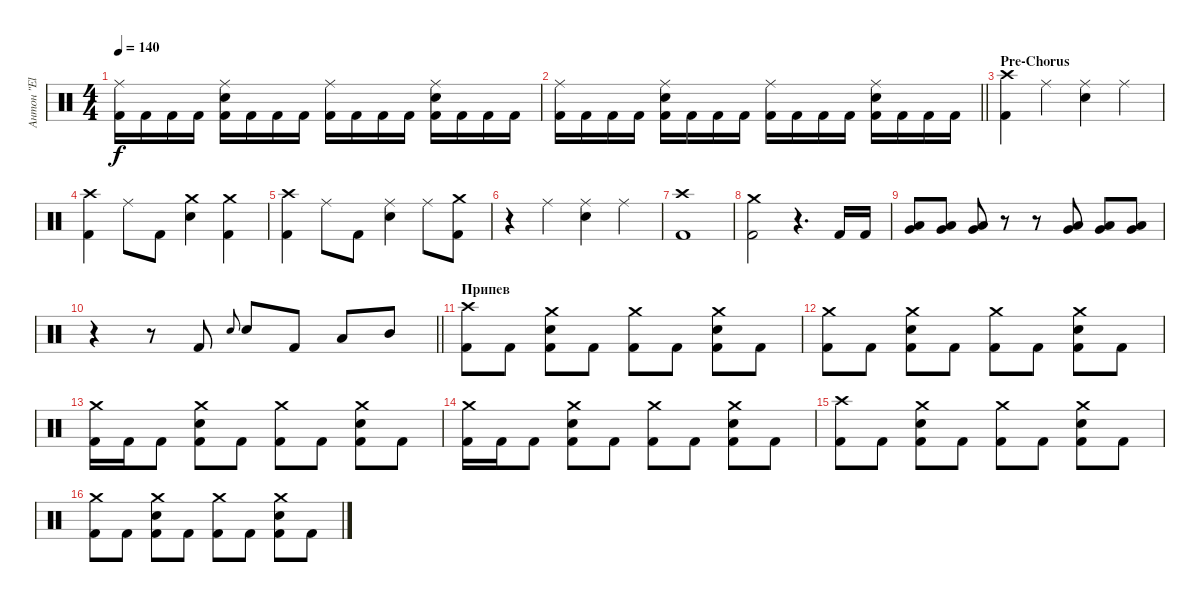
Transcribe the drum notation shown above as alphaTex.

\track ("Антон \"El Bastardo\" Смольянин" "Антон \"El ") {instrument percussion}
\staff {score}
\articulation defaults
\ts (4 4)
\tempo 140
\clef neutral
\ks c
("Ride (middle)" "Kick (hit) 2").16{dy f} "Kick (hit) 2".16 "Kick (hit) 2".16 "Kick (hit) 2".16 ("Ride (middle)" "Electric Snare (hit)" "Kick (hit) 2").16 "Kick (hit) 2".16 "Kick (hit) 2".16 "Kick (hit) 2".16 ("Ride (middle)" "Kick (hit) 2").16 "Kick (hit) 2".16 "Kick (hit) 2".16 "Kick (hit) 2".16 ("Ride (middle)" "Electric Snare (hit)" "Kick (hit) 2").16 "Kick (hit) 2".16 "Kick (hit) 2".16 "Kick (hit) 2".16 |
\barLineRight lightlight
("Ride (middle)" "Kick (hit) 2").16 "Kick (hit) 2".16 "Kick (hit) 2".16 "Kick (hit) 2".16 ("Ride (middle)" "Electric Snare (hit)" "Kick (hit) 2").16 "Kick (hit) 2".16 "Kick (hit) 2".16 "Kick (hit) 2".16 ("Ride (middle)" "Kick (hit) 2").16 "Kick (hit) 2".16 "Kick (hit) 2".16 "Kick (hit) 2".16 ("Ride (middle)" "Electric Snare (hit)" "Kick (hit) 2").16 "Kick (hit) 2".16 "Kick (hit) 2".16 "Kick (hit) 2".16 |
\section ("" "Pre-Chorus")
("Crash high (hit)" "Kick (hit) 2").4 "Ride (middle)".4 ("Ride (middle)" "Electric Snare (hit)").4 "Ride (middle)".4 |
("Crash high (hit)" "Kick (hit) 2").4 "Ride (middle)".8 "Kick (hit) 2".8 ("Crash medium (hit)" "Electric Snare (hit)").4 ("Crash medium (hit)" "Kick (hit) 2").4 |
("Crash high (hit)" "Kick (hit) 2").4 "Ride (middle)".8 "Kick (hit) 2".8 ("Ride (middle)" "Electric Snare (hit)").4 "Ride (middle)".8 ("Crash medium (hit)" "Kick (hit) 2").8 |
r.4 "Ride (middle)".4 ("Ride (middle)" "Electric Snare (hit)").4 "Ride (middle)".4 |
("Crash high (hit)" "Kick (hit) 2").1 |
("Crash medium (hit)" "Kick (hit) 2").2 r.4{d} "Kick (hit) 2".16 "Kick (hit) 2".16 |
("Low Tom (hit)" "Very Low Tom (hit)").8 ("Low Tom (hit)" "Very Low Tom (hit)").8 ("Low Tom (hit)" "Very Low Tom (hit)").8 r.8 r.8 ("Low Tom (hit)" "Very Low Tom (hit)").8 ("Low Tom (hit)" "Very Low Tom (hit)").8 ("Low Tom (hit)" "Very Low Tom (hit)").8 |
\barLineRight lightlight
r.4 r.8 "Kick (hit) 2".8 "Electric Snare (hit)".8{gr onbeat} "Electric Snare (hit)".8 "Kick (hit) 2".8 "Low Tom (hit)".8 "Mid Tom (hit)".8 |
\section ("" "Припев")
("Crash high (hit)" "Kick (hit) 2").8 "Kick (hit) 2".8 ("Crash medium (hit)" "Electric Snare (hit)" "Kick (hit) 2").8 "Kick (hit) 2".8 ("Crash medium (hit)" "Kick (hit) 2").8 "Kick (hit) 2".8 ("Crash medium (hit)" "Electric Snare (hit)" "Kick (hit) 2").8 "Kick (hit) 2".8 |
("Crash medium (hit)" "Kick (hit) 2").8 "Kick (hit) 2".8 ("Crash medium (hit)" "Electric Snare (hit)" "Kick (hit) 2").8 "Kick (hit) 2".8 ("Crash medium (hit)" "Kick (hit) 2").8 "Kick (hit) 2".8 ("Crash medium (hit)" "Electric Snare (hit)" "Kick (hit) 2").8 "Kick (hit) 2".8 |
("Crash medium (hit)" "Kick (hit) 2").16 "Kick (hit) 2".16 "Kick (hit) 2".8 ("Crash medium (hit)" "Electric Snare (hit)" "Kick (hit) 2").8 "Kick (hit) 2".8 ("Crash medium (hit)" "Kick (hit) 2").8 "Kick (hit) 2".8 ("Crash medium (hit)" "Electric Snare (hit)" "Kick (hit) 2").8 "Kick (hit) 2".8 |
("Crash medium (hit)" "Kick (hit) 2").16 "Kick (hit) 2".16 "Kick (hit) 2".8 ("Crash medium (hit)" "Electric Snare (hit)" "Kick (hit) 2").8 "Kick (hit) 2".8 ("Crash medium (hit)" "Kick (hit) 2").8 "Kick (hit) 2".8 ("Crash medium (hit)" "Electric Snare (hit)" "Kick (hit) 2").8 "Kick (hit) 2".8 |
("Crash high (hit)" "Kick (hit) 2").8 "Kick (hit) 2".8 ("Crash medium (hit)" "Electric Snare (hit)" "Kick (hit) 2").8 "Kick (hit) 2".8 ("Crash medium (hit)" "Kick (hit) 2").8 "Kick (hit) 2".8 ("Crash medium (hit)" "Electric Snare (hit)" "Kick (hit) 2").8 "Kick (hit) 2".8 |
("Crash medium (hit)" "Kick (hit) 2").8 "Kick (hit) 2".8 ("Crash medium (hit)" "Electric Snare (hit)" "Kick (hit) 2").8 "Kick (hit) 2".8 ("Crash medium (hit)" "Kick (hit) 2").8 "Kick (hit) 2".8 ("Crash medium (hit)" "Electric Snare (hit)" "Kick (hit) 2").8 "Kick (hit) 2".8
